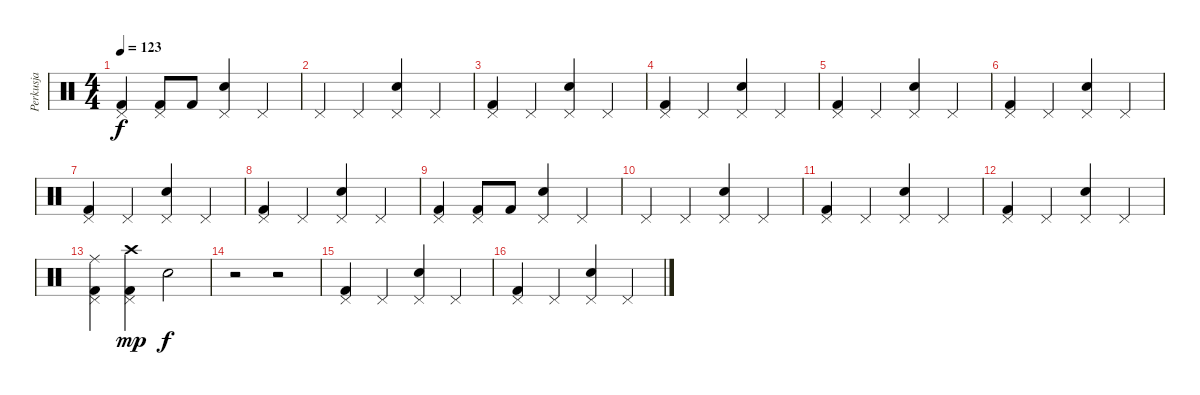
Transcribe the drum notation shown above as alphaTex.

\track ("Perkusja" "Perkusja") {instrument percussion}
\staff {score}
\articulation defaults
\ts (4 4)
\tempo 123
\clef neutral
\ks c
("Kick (hit) 2" "Pedal Hi-Hat (hit)").4{dy f} ("Kick (hit) 2" "Pedal Hi-Hat (hit)").8 "Kick (hit) 2".8 ("Snare (hit) 2" "Pedal Hi-Hat (hit)").4 "Pedal Hi-Hat (hit)".4 |
"Pedal Hi-Hat (hit)".4 "Pedal Hi-Hat (hit)".4 ("Snare (hit) 2" "Pedal Hi-Hat (hit)").4 "Pedal Hi-Hat (hit)".4 |
("Kick (hit) 2" "Pedal Hi-Hat (hit)").4 "Pedal Hi-Hat (hit)".4 ("Snare (hit) 2" "Pedal Hi-Hat (hit)").4 "Pedal Hi-Hat (hit)".4 |
("Kick (hit) 2" "Pedal Hi-Hat (hit)").4 "Pedal Hi-Hat (hit)".4 ("Snare (hit) 2" "Pedal Hi-Hat (hit)").4 "Pedal Hi-Hat (hit)".4 |
("Kick (hit) 2" "Pedal Hi-Hat (hit)").4 "Pedal Hi-Hat (hit)".4 ("Snare (hit) 2" "Pedal Hi-Hat (hit)").4 "Pedal Hi-Hat (hit)".4 |
("Kick (hit) 2" "Pedal Hi-Hat (hit)").4 "Pedal Hi-Hat (hit)".4 ("Snare (hit) 2" "Pedal Hi-Hat (hit)").4 "Pedal Hi-Hat (hit)".4 |
("Kick (hit) 2" "Pedal Hi-Hat (hit)").4 "Pedal Hi-Hat (hit)".4 ("Snare (hit) 2" "Pedal Hi-Hat (hit)").4 "Pedal Hi-Hat (hit)".4 |
("Kick (hit) 2" "Pedal Hi-Hat (hit)").4 "Pedal Hi-Hat (hit)".4 ("Snare (hit) 2" "Pedal Hi-Hat (hit)").4 "Pedal Hi-Hat (hit)".4 |
("Kick (hit) 2" "Pedal Hi-Hat (hit)").4 ("Kick (hit) 2" "Pedal Hi-Hat (hit)").8 "Kick (hit) 2".8 ("Snare (hit) 2" "Pedal Hi-Hat (hit)").4 "Pedal Hi-Hat (hit)".4 |
"Pedal Hi-Hat (hit)".4 "Pedal Hi-Hat (hit)".4 ("Snare (hit) 2" "Pedal Hi-Hat (hit)").4 "Pedal Hi-Hat (hit)".4 |
("Kick (hit) 2" "Pedal Hi-Hat (hit)").4 "Pedal Hi-Hat (hit)".4 ("Snare (hit) 2" "Pedal Hi-Hat (hit)").4 "Pedal Hi-Hat (hit)".4 |
("Kick (hit) 2" "Pedal Hi-Hat (hit)").4 "Pedal Hi-Hat (hit)".4 ("Snare (hit) 2" "Pedal Hi-Hat (hit)").4 "Pedal Hi-Hat (hit)".4 |
("Ride (middle)" "Kick (hit) 2" "Pedal Hi-Hat (hit)").4 ("Crash high (hit)" "Kick (hit) 2" "Pedal Hi-Hat (hit)").4{dy mp} "Snare (hit)"{x}.2{dy f} |
r.2 r.2 |
("Kick (hit) 2" "Pedal Hi-Hat (hit)").4 "Pedal Hi-Hat (hit)".4 ("Snare (hit) 2" "Pedal Hi-Hat (hit)").4 "Pedal Hi-Hat (hit)".4 |
("Kick (hit) 2" "Pedal Hi-Hat (hit)").4 "Pedal Hi-Hat (hit)".4 ("Snare (hit) 2" "Pedal Hi-Hat (hit)").4 "Pedal Hi-Hat (hit)".4
